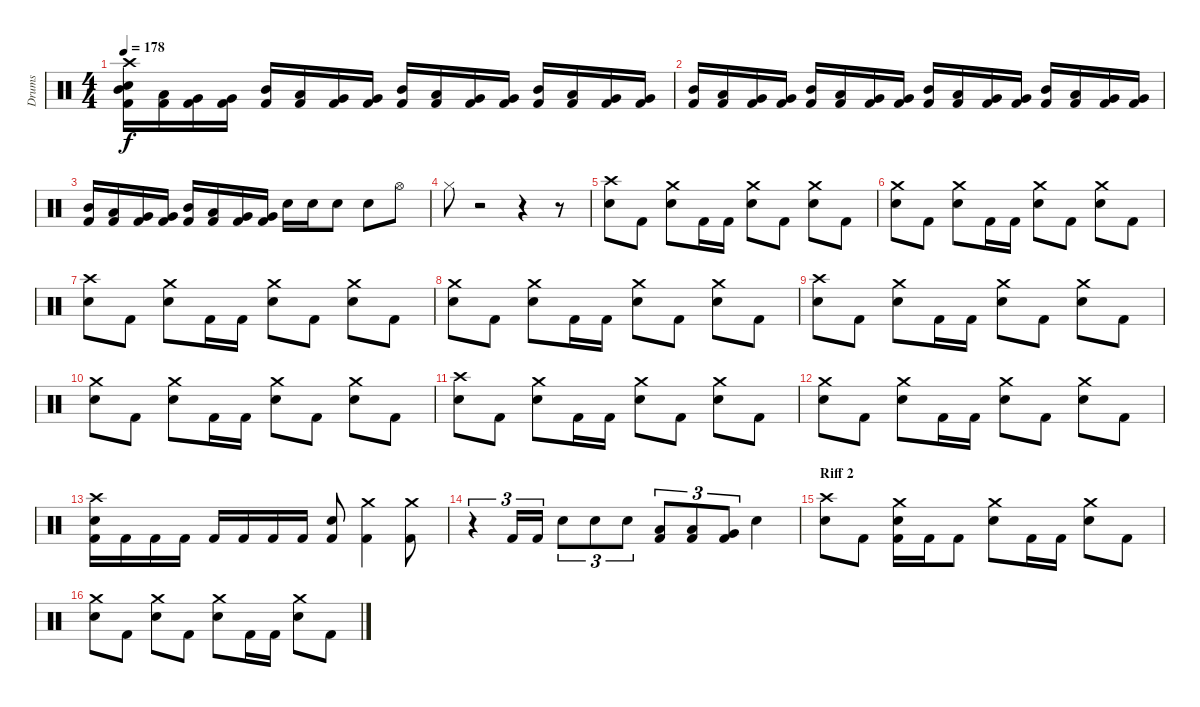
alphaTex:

\track ("Drums" "Drums") {instrument percussion}
\staff {score}
\articulation defaults
\ts (4 4)
\tempo 178
\clef neutral
\ks c
("Crash high (hit)" "Mid Tom (hit)" "Electric Snare (hit)" "Kick (hit) 2").16{dy f} ("Low Tom (hit)" "Kick (hit) 2").16 ("Very Low Tom (hit)" "Kick (hit) 2").16 ("Very Low Tom (hit)" "Kick (hit) 2").16 ("Mid Tom (hit)" "Kick (hit) 2").16 ("Low Tom (hit)" "Kick (hit) 2").16 ("Very Low Tom (hit)" "Kick (hit) 2").16 ("Very Low Tom (hit)" "Kick (hit) 2").16 ("Mid Tom (hit)" "Kick (hit) 2").16 ("Low Tom (hit)" "Kick (hit) 2").16 ("Very Low Tom (hit)" "Kick (hit) 2").16 ("Very Low Tom (hit)" "Kick (hit) 2").16 ("Mid Tom (hit)" "Kick (hit) 2").16 ("Low Tom (hit)" "Kick (hit) 2").16 ("Very Low Tom (hit)" "Kick (hit) 2").16 ("Very Low Tom (hit)" "Kick (hit) 2").16 |
("Mid Tom (hit)" "Kick (hit) 2").16 ("Low Tom (hit)" "Kick (hit) 2").16 ("Very Low Tom (hit)" "Kick (hit) 2").16 ("Very Low Tom (hit)" "Kick (hit) 2").16 ("Mid Tom (hit)" "Kick (hit) 2").16 ("Low Tom (hit)" "Kick (hit) 2").16 ("Very Low Tom (hit)" "Kick (hit) 2").16 ("Very Low Tom (hit)" "Kick (hit) 2").16 ("Mid Tom (hit)" "Kick (hit) 2").16 ("Low Tom (hit)" "Kick (hit) 2").16 ("Very Low Tom (hit)" "Kick (hit) 2").16 ("Very Low Tom (hit)" "Kick (hit) 2").16 ("Mid Tom (hit)" "Kick (hit) 2").16 ("Low Tom (hit)" "Kick (hit) 2").16 ("Very Low Tom (hit)" "Kick (hit) 2").16 ("Very Low Tom (hit)" "Kick (hit) 2").16 |
("Mid Tom (hit)" "Kick (hit) 2").16 ("Low Tom (hit)" "Kick (hit) 2").16 ("Very Low Tom (hit)" "Kick (hit) 2").16 ("Very Low Tom (hit)" "Kick (hit) 2").16 ("Mid Tom (hit)" "Kick (hit) 2").16 ("Low Tom (hit)" "Kick (hit) 2").16 ("Very Low Tom (hit)" "Kick (hit) 2").16 ("Very Low Tom (hit)" "Kick (hit) 2").16 "Electric Snare (hit)".16 "Electric Snare (hit)".16 "Electric Snare (hit)".8 "Electric Snare (hit)".8 "Hi-Hat (open)".8 |
"Hi-Hat (closed)".8 r.2 r.4 r.8 |
("Crash high (hit)" "Electric Snare (hit)").8 "Kick (hit) 2".8 ("Crash medium (hit)" "Electric Snare (hit)").8 "Kick (hit) 2".16 "Kick (hit) 2".16 ("Crash medium (hit)" "Electric Snare (hit)").8 "Kick (hit) 2".8 ("Crash medium (hit)" "Electric Snare (hit)").8 "Kick (hit) 2".8 |
("Crash medium (hit)" "Electric Snare (hit)").8 "Kick (hit) 2".8 ("Crash medium (hit)" "Electric Snare (hit)").8 "Kick (hit) 2".16 "Kick (hit) 2".16 ("Crash medium (hit)" "Electric Snare (hit)").8 "Kick (hit) 2".8 ("Crash medium (hit)" "Electric Snare (hit)").8 "Kick (hit) 2".8 |
("Crash high (hit)" "Electric Snare (hit)").8 "Kick (hit) 2".8 ("Crash medium (hit)" "Electric Snare (hit)").8 "Kick (hit) 2".16 "Kick (hit) 2".16 ("Crash medium (hit)" "Electric Snare (hit)").8 "Kick (hit) 2".8 ("Crash medium (hit)" "Electric Snare (hit)").8 "Kick (hit) 2".8 |
("Crash medium (hit)" "Electric Snare (hit)").8 "Kick (hit) 2".8 ("Crash medium (hit)" "Electric Snare (hit)").8 "Kick (hit) 2".16 "Kick (hit) 2".16 ("Crash medium (hit)" "Electric Snare (hit)").8 "Kick (hit) 2".8 ("Crash medium (hit)" "Electric Snare (hit)").8 "Kick (hit) 2".8 |
("Crash high (hit)" "Electric Snare (hit)").8 "Kick (hit) 2".8 ("Crash medium (hit)" "Electric Snare (hit)").8 "Kick (hit) 2".16 "Kick (hit) 2".16 ("Crash medium (hit)" "Electric Snare (hit)").8 "Kick (hit) 2".8 ("Crash medium (hit)" "Electric Snare (hit)").8 "Kick (hit) 2".8 |
("Crash medium (hit)" "Electric Snare (hit)").8 "Kick (hit) 2".8 ("Crash medium (hit)" "Electric Snare (hit)").8 "Kick (hit) 2".16 "Kick (hit) 2".16 ("Crash medium (hit)" "Electric Snare (hit)").8 "Kick (hit) 2".8 ("Crash medium (hit)" "Electric Snare (hit)").8 "Kick (hit) 2".8 |
("Crash high (hit)" "Electric Snare (hit)").8 "Kick (hit) 2".8 ("Crash medium (hit)" "Electric Snare (hit)").8 "Kick (hit) 2".16 "Kick (hit) 2".16 ("Crash medium (hit)" "Electric Snare (hit)").8 "Kick (hit) 2".8 ("Crash medium (hit)" "Electric Snare (hit)").8 "Kick (hit) 2".8 |
("Crash medium (hit)" "Electric Snare (hit)").8 "Kick (hit) 2".8 ("Crash medium (hit)" "Electric Snare (hit)").8 "Kick (hit) 2".16 "Kick (hit) 2".16 ("Crash medium (hit)" "Electric Snare (hit)").8 "Kick (hit) 2".8 ("Crash medium (hit)" "Electric Snare (hit)").8 "Kick (hit) 2".8 |
("Crash high (hit)" "Electric Snare (hit)" "Kick (hit) 2").16 "Kick (hit) 2".16 "Kick (hit) 2".16 "Kick (hit) 2".16 "Kick (hit) 2".16 "Kick (hit) 2".16 "Kick (hit) 2".16 "Kick (hit) 2".16 ("Electric Snare (hit)" "Kick (hit) 2").8 ("Crash medium (hit)" "Kick (hit) 2").4 ("Crash medium (hit)" "Kick (hit) 2").8 |
r.4{tu (3 2)} "Kick (hit) 2".16{tu (3 2)} "Kick (hit) 2".16{tu (3 2)} "Electric Snare (hit)".8{tu (3 2)} "Electric Snare (hit)".8{tu (3 2)} "Electric Snare (hit)".8{tu (3 2)} ("Low Tom (hit)" "Kick (hit) 2").8{tu (3 2)} ("Low Tom (hit)" "Kick (hit) 2").8{tu (3 2)} ("Very Low Tom (hit)" "Kick (hit) 2").8{tu (3 2)} "Electric Snare (hit)".4 |
\section ("" "Riff 2")
("Crash high (hit)" "Electric Snare (hit)").8 "Kick (hit) 2".8 ("Crash medium (hit)" "Electric Snare (hit)" "Kick (hit) 2").16 "Kick (hit) 2".16 "Kick (hit) 2".8 ("Crash medium (hit)" "Electric Snare (hit)").8 "Kick (hit) 2".16 "Kick (hit) 2".16 ("Crash medium (hit)" "Electric Snare (hit)").8 "Kick (hit) 2".8 |
("Crash medium (hit)" "Electric Snare (hit)").8 "Kick (hit) 2".8 ("Crash medium (hit)" "Electric Snare (hit)").8 "Kick (hit) 2".8 ("Crash medium (hit)" "Electric Snare (hit)").8 "Kick (hit) 2".16 "Kick (hit) 2".16 ("Crash medium (hit)" "Electric Snare (hit)").8 "Kick (hit) 2".8
